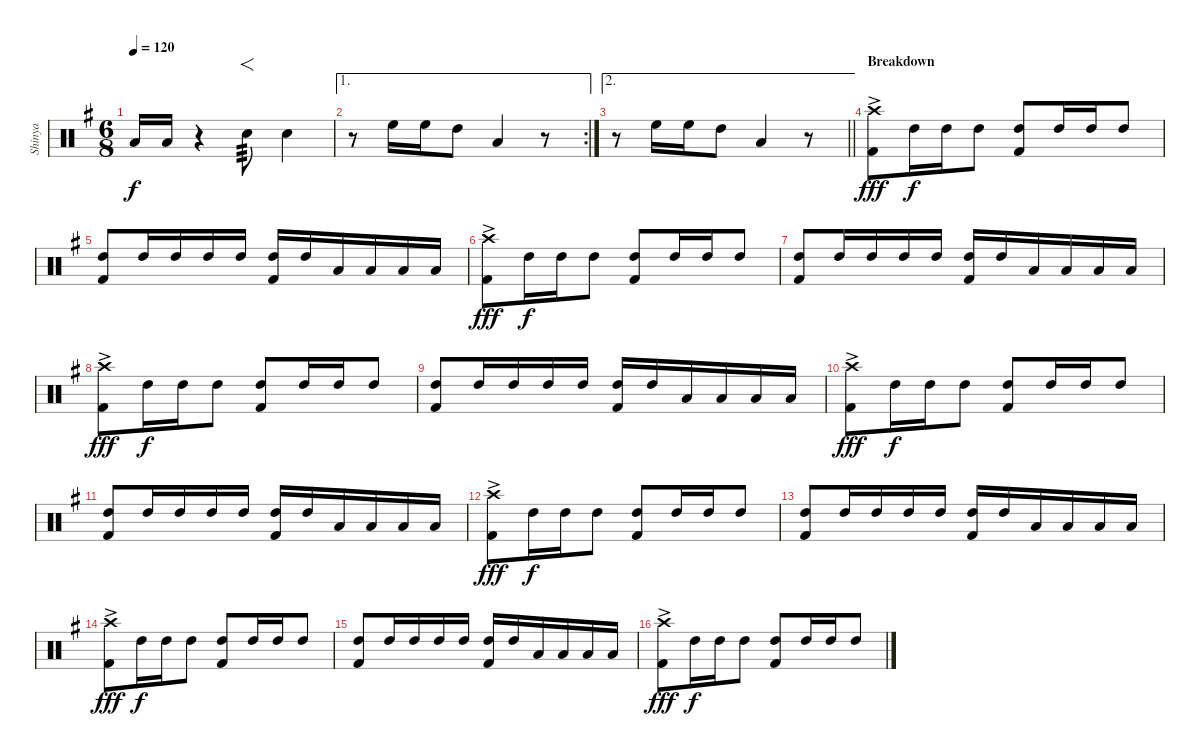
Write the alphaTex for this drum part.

\track ("Shinya" "Shinya") {instrument percussion}
\staff {score}
\articulation defaults
\ts (6 8)
\tempo 120
\clef neutral
\ks g "Low Floor Tom (hit)".16{dy f} "Low Floor Tom (hit)".16
r.4 "Snare (hit) 2".8{f tp 3} "Snare (hit) 2".4 |
\ae 1
\rc 2
r.8 "High Floor Tom (hit)".16 "High Floor Tom (hit)".16 "High Tom (hit)".8 "Low Tom (hit)".4 r.8 |
\ae 2
\barLineRight lightlight
r.8 "High Floor Tom (hit)".16 "High Floor Tom (hit)".16 "High Tom (hit)".8 "Low Tom (hit)".4 r.8 |
\section ("" "Breakdown")
("Crash high (hit)"{ac} "Kick (hit) 2").8{dy fff} "High Tom (hit)".16{dy f} "High Tom (hit)".16 "High Tom (hit)".8 ("High Tom (hit)" "Kick (hit) 2").8 "High Tom (hit)".16 "High Tom (hit)".16 "High Tom (hit)".8 |
("High Tom (hit)" "Kick (hit) 2").8 "High Tom (hit)".16 "High Tom (hit)".16 "High Tom (hit)".16 "High Tom (hit)".16 ("High Tom (hit)" "Kick (hit) 2").16 "High Tom (hit)".16 "Low Tom (hit)".16 "Low Tom (hit)".16 "Low Floor Tom (hit)".16 "Low Floor Tom (hit)".16 |
("Crash high (hit)"{ac} "Kick (hit) 2").8{dy fff} "High Tom (hit)".16{dy f} "High Tom (hit)".16 "High Tom (hit)".8 ("High Tom (hit)" "Kick (hit) 2").8 "High Tom (hit)".16 "High Tom (hit)".16 "High Tom (hit)".8 |
("High Tom (hit)" "Kick (hit) 2").8 "High Tom (hit)".16 "High Tom (hit)".16 "High Tom (hit)".16 "High Tom (hit)".16 ("High Tom (hit)" "Kick (hit) 2").16 "High Tom (hit)".16 "Low Tom (hit)".16 "Low Tom (hit)".16 "Low Floor Tom (hit)".16 "Low Floor Tom (hit)".16 |
("Crash high (hit)"{ac} "Kick (hit) 2").8{dy fff} "High Tom (hit)".16{dy f} "High Tom (hit)".16 "High Tom (hit)".8 ("High Tom (hit)" "Kick (hit) 2").8 "High Tom (hit)".16 "High Tom (hit)".16 "High Tom (hit)".8 |
("High Tom (hit)" "Kick (hit) 2").8 "High Tom (hit)".16 "High Tom (hit)".16 "High Tom (hit)".16 "High Tom (hit)".16 ("High Tom (hit)" "Kick (hit) 2").16 "High Tom (hit)".16 "Low Tom (hit)".16 "Low Tom (hit)".16 "Low Floor Tom (hit)".16 "Low Floor Tom (hit)".16 |
("Crash high (hit)"{ac} "Kick (hit) 2").8{dy fff} "High Tom (hit)".16{dy f} "High Tom (hit)".16 "High Tom (hit)".8 ("High Tom (hit)" "Kick (hit) 2").8 "High Tom (hit)".16 "High Tom (hit)".16 "High Tom (hit)".8 |
("High Tom (hit)" "Kick (hit) 2").8 "High Tom (hit)".16 "High Tom (hit)".16 "High Tom (hit)".16 "High Tom (hit)".16 ("High Tom (hit)" "Kick (hit) 2").16 "High Tom (hit)".16 "Low Tom (hit)".16 "Low Tom (hit)".16 "Low Floor Tom (hit)".16 "Low Floor Tom (hit)".16 |
("Crash high (hit)"{ac} "Kick (hit) 2").8{dy fff} "High Tom (hit)".16{dy f} "High Tom (hit)".16 "High Tom (hit)".8 ("High Tom (hit)" "Kick (hit) 2").8 "High Tom (hit)".16 "High Tom (hit)".16 "High Tom (hit)".8 |
("High Tom (hit)" "Kick (hit) 2").8 "High Tom (hit)".16 "High Tom (hit)".16 "High Tom (hit)".16 "High Tom (hit)".16 ("High Tom (hit)" "Kick (hit) 2").16 "High Tom (hit)".16 "Low Tom (hit)".16 "Low Tom (hit)".16 "Low Floor Tom (hit)".16 "Low Floor Tom (hit)".16 |
("Crash high (hit)"{ac} "Kick (hit) 2").8{dy fff} "High Tom (hit)".16{dy f} "High Tom (hit)".16 "High Tom (hit)".8 ("High Tom (hit)" "Kick (hit) 2").8 "High Tom (hit)".16 "High Tom (hit)".16 "High Tom (hit)".8 |
("High Tom (hit)" "Kick (hit) 2").8 "High Tom (hit)".16 "High Tom (hit)".16 "High Tom (hit)".16 "High Tom (hit)".16 ("High Tom (hit)" "Kick (hit) 2").16 "High Tom (hit)".16 "Low Tom (hit)".16 "Low Tom (hit)".16 "Low Floor Tom (hit)".16 "Low Floor Tom (hit)".16 |
("Crash high (hit)"{ac} "Kick (hit) 2").8{dy fff} "High Tom (hit)".16{dy f} "High Tom (hit)".16 "High Tom (hit)".8 ("High Tom (hit)" "Kick (hit) 2").8 "High Tom (hit)".16 "High Tom (hit)".16 "High Tom (hit)".8
